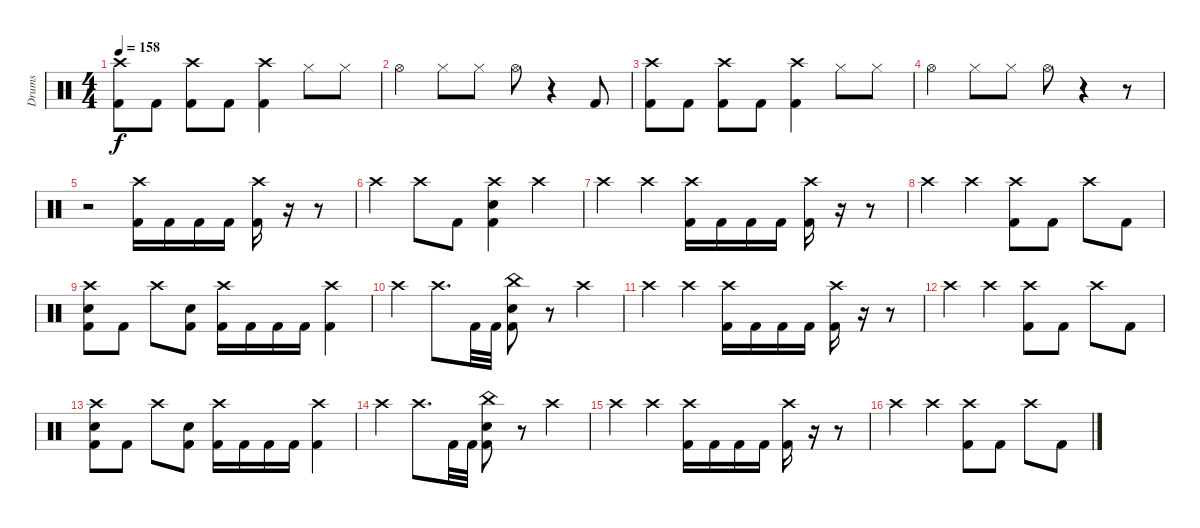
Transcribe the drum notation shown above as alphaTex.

\track ("Drums" "Drums") {instrument percussion}
\staff {score}
\articulation defaults
\ts (4 4)
\tempo 158
\clef neutral
\ks c
("Crash high (hit)" "Kick (hit) 2").8{dy f} "Kick (hit) 2".8 ("Crash high (hit)" "Kick (hit) 2").8 "Kick (hit) 2".8 ("Crash high (hit)" "Kick (hit) 2").4 "Hi-Hat (closed)".8 "Hi-Hat (closed)".8 |
"Hi-Hat (open)".4 "Hi-Hat (closed)".8 "Hi-Hat (closed)".8 "Hi-Hat (open)".8 r.4 "Kick (hit) 2".8 |
("Crash high (hit)" "Kick (hit) 2").8 "Kick (hit) 2".8 ("Crash high (hit)" "Kick (hit) 2").8 "Kick (hit) 2".8 ("Crash high (hit)" "Kick (hit) 2").4 "Hi-Hat (closed)".8 "Hi-Hat (closed)".8 |
"Hi-Hat (open)".4 "Hi-Hat (closed)".8 "Hi-Hat (closed)".8 "Hi-Hat (open)".8 r.4 r.8 |
r.2 ("Crash high (hit)" "Kick (hit) 2").16 "Kick (hit) 2".16 "Kick (hit) 2".16 "Kick (hit) 2".16 ("Crash high (hit)" "Kick (hit) 2").16 r.16 r.8 |
"Crash high (hit)".4 "Crash high (hit)".8 "Kick (hit) 2".8 ("Crash high (hit)" "Electric Snare (hit)" "Kick (hit) 2").4 "Crash high (hit)".4 |
"Crash high (hit)".4 "Crash high (hit)".4 ("Crash high (hit)" "Kick (hit) 2").16 "Kick (hit) 2".16 "Kick (hit) 2".16 "Kick (hit) 2".16 ("Crash high (hit)" "Kick (hit) 2").16 r.16 r.8 |
"Crash high (hit)".4 "Crash high (hit)".4 ("Crash high (hit)" "Kick (hit) 2").8 "Kick (hit) 2".8 "Crash high (hit)".8 "Kick (hit) 2".8 |
("Crash high (hit)" "Electric Snare (hit)" "Kick (hit) 2").8 "Kick (hit) 2".8 "Crash high (hit)".8 ("Electric Snare (hit)" "Kick (hit) 2").8 ("Crash high (hit)" "Kick (hit) 2").16 "Kick (hit) 2".16 "Kick (hit) 2".16 "Kick (hit) 2".16 ("Crash high (hit)" "Kick (hit) 2").4 |
"Crash high (hit)".4 "Crash high (hit)".8{d} "Kick (hit) 2".32 "Kick (hit) 2".32 ("China (hit)" "Electric Snare (hit)" "Kick (hit) 2").8 r.8 "Crash high (hit)".4 |
"Crash high (hit)".4 "Crash high (hit)".4 ("Crash high (hit)" "Kick (hit) 2").16 "Kick (hit) 2".16 "Kick (hit) 2".16 "Kick (hit) 2".16 ("Crash high (hit)" "Kick (hit) 2").16 r.16 r.8 |
"Crash high (hit)".4 "Crash high (hit)".4 ("Crash high (hit)" "Kick (hit) 2").8 "Kick (hit) 2".8 "Crash high (hit)".8 "Kick (hit) 2".8 |
("Crash high (hit)" "Electric Snare (hit)" "Kick (hit) 2").8 "Kick (hit) 2".8 "Crash high (hit)".8 ("Electric Snare (hit)" "Kick (hit) 2").8 ("Crash high (hit)" "Kick (hit) 2").16 "Kick (hit) 2".16 "Kick (hit) 2".16 "Kick (hit) 2".16 ("Crash high (hit)" "Kick (hit) 2").4 |
"Crash high (hit)".4 "Crash high (hit)".8{d} "Kick (hit) 2".32 "Kick (hit) 2".32 ("China (hit)" "Electric Snare (hit)" "Kick (hit) 2").8 r.8 "Crash high (hit)".4 |
"Crash high (hit)".4 "Crash high (hit)".4 ("Crash high (hit)" "Kick (hit) 2").16 "Kick (hit) 2".16 "Kick (hit) 2".16 "Kick (hit) 2".16 ("Crash high (hit)" "Kick (hit) 2").16 r.16 r.8 |
"Crash high (hit)".4 "Crash high (hit)".4 ("Crash high (hit)" "Kick (hit) 2").8 "Kick (hit) 2".8 "Crash high (hit)".8 "Kick (hit) 2".8
